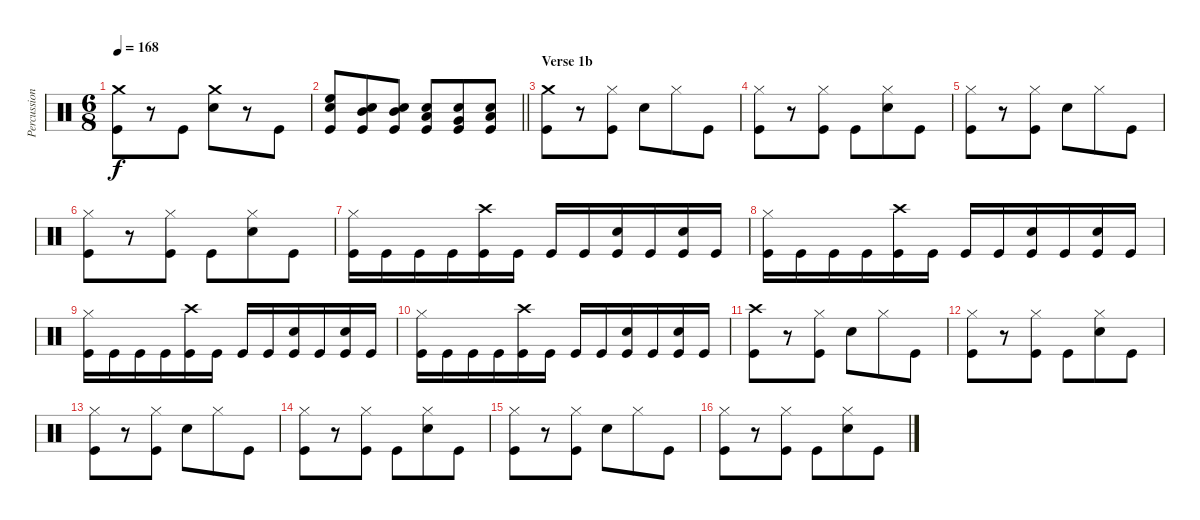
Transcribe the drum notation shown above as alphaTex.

\track ("Percussion" "Percussion") {instrument percussion}
\staff {score}
\articulation defaults
\ts (6 8)
\tempo 168
\clef neutral
\ks c
("Crash medium (hit)" "Kick (hit)").8{dy f} r.8 "Kick (hit)".8 ("Crash medium (hit)" "Snare (hit) 2").8 r.8 "Kick (hit)".8 |
\barLineRight lightlight
("High Floor Tom (hit)" "Snare (hit) 2" "Kick (hit)").8 ("Mid Tom (hit)" "Snare (hit) 2" "Kick (hit)").8 ("Mid Tom (hit)" "Snare (hit) 2" "Kick (hit)").8 ("Low Tom (hit)" "Snare (hit) 2" "Kick (hit)").8 ("Very Low Tom (hit)" "Snare (hit) 2" "Kick (hit)").8 ("Low Floor Tom (hit)" "Snare (hit) 2" "Kick (hit)").8 |
\section ("" "Verse 1b")
("Crash medium (hit)" "Kick (hit)").8 r.8 ("Hi-Hat (closed)" "Kick (hit)").8 "Snare (hit) 2".8 "Hi-Hat (closed)".8 "Kick (hit)".8 |
("Hi-Hat (closed)" "Kick (hit)").8 r.8 ("Hi-Hat (closed)" "Kick (hit)").8 "Kick (hit)".8 ("Hi-Hat (closed)" "Snare (hit) 2").8 "Kick (hit)".8 |
("Hi-Hat (closed)" "Kick (hit)").8 r.8 ("Hi-Hat (closed)" "Kick (hit)").8 "Snare (hit) 2".8 "Hi-Hat (closed)".8 "Kick (hit)".8 |
("Hi-Hat (closed)" "Kick (hit)").8 r.8 ("Hi-Hat (closed)" "Kick (hit)").8 "Kick (hit)".8 ("Hi-Hat (closed)" "Snare (hit) 2").8 "Kick (hit)".8 |
("Hi-Hat (closed)" "Kick (hit)").16 "Kick (hit)".16 "Kick (hit)".16 "Kick (hit)".16 ("Crash high (hit)" "Kick (hit)").16 "Kick (hit)".16 "Kick (hit)".16 "Kick (hit)".16 ("Snare (hit) 2" "Kick (hit)").16 "Kick (hit)".16 ("Snare (hit) 2" "Kick (hit)").16 "Kick (hit)".16 |
("Hi-Hat (closed)" "Kick (hit)").16 "Kick (hit)".16 "Kick (hit)".16 "Kick (hit)".16 ("Crash high (hit)" "Kick (hit)").16 "Kick (hit)".16 "Kick (hit)".16 "Kick (hit)".16 ("Snare (hit) 2" "Kick (hit)").16 "Kick (hit)".16 ("Snare (hit) 2" "Kick (hit)").16 "Kick (hit)".16 |
("Hi-Hat (closed)" "Kick (hit)").16 "Kick (hit)".16 "Kick (hit)".16 "Kick (hit)".16 ("Crash high (hit)" "Kick (hit)").16 "Kick (hit)".16 "Kick (hit)".16 "Kick (hit)".16 ("Snare (hit) 2" "Kick (hit)").16 "Kick (hit)".16 ("Snare (hit) 2" "Kick (hit)").16 "Kick (hit)".16 |
("Hi-Hat (closed)" "Kick (hit)").16 "Kick (hit)".16 "Kick (hit)".16 "Kick (hit)".16 ("Crash high (hit)" "Kick (hit)").16 "Kick (hit)".16 "Kick (hit)".16 "Kick (hit)".16 ("Snare (hit) 2" "Kick (hit)").16 "Kick (hit)".16 ("Snare (hit) 2" "Kick (hit)").16 "Kick (hit)".16 |
("Crash high (hit)" "Kick (hit)").8 r.8 ("Hi-Hat (closed)" "Kick (hit)").8 "Snare (hit) 2".8 "Hi-Hat (closed)".8 "Kick (hit)".8 |
("Hi-Hat (closed)" "Kick (hit)").8 r.8 ("Hi-Hat (closed)" "Kick (hit)").8 "Kick (hit)".8 ("Hi-Hat (closed)" "Snare (hit) 2").8 "Kick (hit)".8 |
("Hi-Hat (closed)" "Kick (hit)").8 r.8 ("Hi-Hat (closed)" "Kick (hit)").8 "Snare (hit) 2".8 "Hi-Hat (closed)".8 "Kick (hit)".8 |
("Hi-Hat (closed)" "Kick (hit)").8 r.8 ("Hi-Hat (closed)" "Kick (hit)").8 "Kick (hit)".8 ("Hi-Hat (closed)" "Snare (hit) 2").8 "Kick (hit)".8 |
("Hi-Hat (closed)" "Kick (hit)").8 r.8 ("Hi-Hat (closed)" "Kick (hit)").8 "Snare (hit) 2".8 "Hi-Hat (closed)".8 "Kick (hit)".8 |
("Hi-Hat (closed)" "Kick (hit)").8 r.8 ("Hi-Hat (closed)" "Kick (hit)").8 "Kick (hit)".8 ("Hi-Hat (closed)" "Snare (hit) 2").8 "Kick (hit)".8
